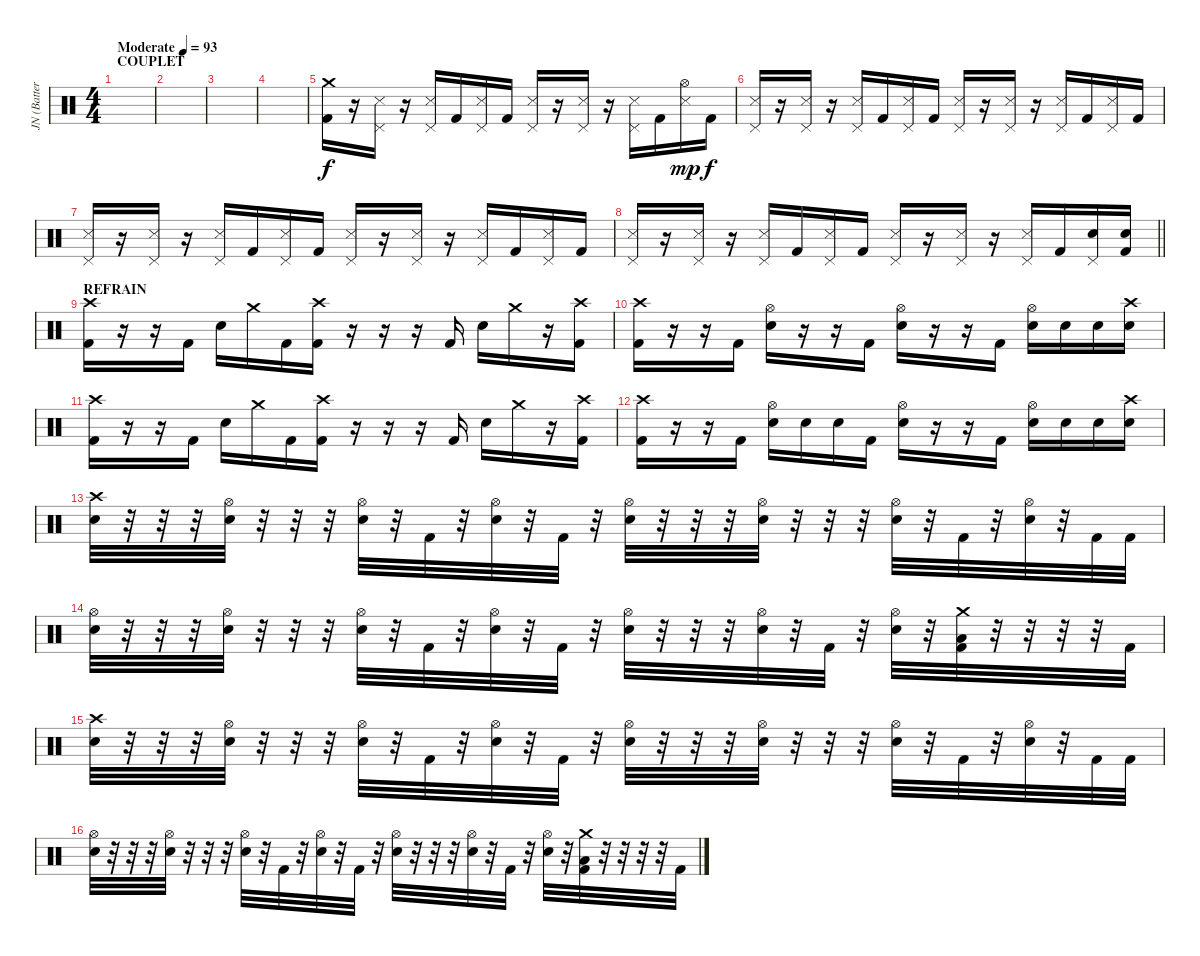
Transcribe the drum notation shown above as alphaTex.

\track ("JN (Batterie)" "JN (Batter") {instrument percussion}
\staff {score}
\articulation defaults
\ts (4 4)
\section ("" "COUPLET")
\tempo (93 "Moderate")
\clef neutral
\ks c
|
|
|
|
("Crash medium (hit)" "Kick (hit) 2").16 r.16 ("Pedal Hi-Hat (hit)" "Snare (side stick) 3").16 r.16 ("Pedal Hi-Hat (hit)" "Snare (side stick) 3").16 "Kick (hit) 2".16 ("Pedal Hi-Hat (hit)" "Snare (side stick) 3").16 "Kick (hit) 2".16 ("Pedal Hi-Hat (hit)" "Snare (side stick) 3").16 r.16 ("Pedal Hi-Hat (hit)" "Snare (side stick) 3").16 r.16 ("Pedal Hi-Hat (hit)" "Snare (side stick) 3").16 "Kick (hit) 2".16 ("Hi-Hat (open)" "Snare (side stick) 3").16{dy mp} "Kick (hit) 2".16{dy f} |
("Pedal Hi-Hat (hit)" "Snare (side stick) 3").16 r.16 ("Pedal Hi-Hat (hit)" "Snare (side stick) 3").16 r.16 ("Pedal Hi-Hat (hit)" "Snare (side stick) 3").16 "Kick (hit) 2".16 ("Pedal Hi-Hat (hit)" "Snare (side stick) 3").16 "Kick (hit) 2".16 ("Pedal Hi-Hat (hit)" "Snare (side stick) 3").16 r.16 ("Pedal Hi-Hat (hit)" "Snare (side stick) 3").16 r.16 ("Pedal Hi-Hat (hit)" "Snare (side stick) 3").16 "Kick (hit) 2".16 ("Pedal Hi-Hat (hit)" "Snare (side stick) 3").16 "Kick (hit) 2".16 |
("Pedal Hi-Hat (hit)" "Snare (side stick) 3").16 r.16 ("Pedal Hi-Hat (hit)" "Snare (side stick) 3").16 r.16 ("Pedal Hi-Hat (hit)" "Snare (side stick) 3").16 "Kick (hit) 2".16 ("Pedal Hi-Hat (hit)" "Snare (side stick) 3").16 "Kick (hit) 2".16 ("Pedal Hi-Hat (hit)" "Snare (side stick) 3").16 r.16 ("Pedal Hi-Hat (hit)" "Snare (side stick) 3").16 r.16 ("Pedal Hi-Hat (hit)" "Snare (side stick) 3").16 "Kick (hit) 2".16 ("Pedal Hi-Hat (hit)" "Snare (side stick) 3").16 "Kick (hit) 2".16 |
\barLineRight lightlight
("Pedal Hi-Hat (hit)" "Snare (side stick) 3").16 r.16 ("Pedal Hi-Hat (hit)" "Snare (side stick) 3").16 r.16 ("Pedal Hi-Hat (hit)" "Snare (side stick) 3").16 "Kick (hit) 2".16 ("Pedal Hi-Hat (hit)" "Snare (side stick) 3").16 "Kick (hit) 2".16 ("Pedal Hi-Hat (hit)" "Snare (side stick) 3").16 r.16 ("Pedal Hi-Hat (hit)" "Snare (side stick) 3").16 r.16 ("Pedal Hi-Hat (hit)" "Snare (side stick) 3").16 "Kick (hit) 2".16 ("Pedal Hi-Hat (hit)" "Electric Snare (hit)").16 ("Electric Snare (hit)" "Kick (hit) 2").16 |
\section ("" "REFRAIN")
("Crash high (hit)" "Kick (hit) 2").16 r.16 r.16 "Kick (hit) 2".16 "Electric Snare (hit)".16 "Crash medium (hit)".16 "Kick (hit) 2".16 ("Crash high (hit)" "Kick (hit) 2").16 r.16 r.16 r.16 "Kick (hit) 2".16 "Electric Snare (hit)".16 "Crash medium (hit)".16 r.16 ("Crash high (hit)" "Kick (hit) 2").16 |
("Crash high (hit)" "Kick (hit) 2").16 r.16 r.16 "Kick (hit) 2".16 ("Hi-Hat (open)" "Electric Snare (hit)").16 r.16 r.16 "Kick (hit) 2".16 ("Hi-Hat (open)" "Electric Snare (hit)").16 r.16 r.16 "Kick (hit) 2".16 ("Hi-Hat (open)" "Electric Snare (hit)").16 "Electric Snare (hit)".16 "Electric Snare (hit)".16 ("Crash high (hit)" "Electric Snare (hit)").16 |
("Crash high (hit)" "Kick (hit) 2").16 r.16 r.16 "Kick (hit) 2".16 "Electric Snare (hit)".16 "Crash medium (hit)".16 "Kick (hit) 2".16 ("Crash high (hit)" "Kick (hit) 2").16 r.16 r.16 r.16 "Kick (hit) 2".16 "Electric Snare (hit)".16 "Crash medium (hit)".16 r.16 ("Crash high (hit)" "Kick (hit) 2").16 |
("Crash high (hit)" "Kick (hit) 2").16 r.16 r.16 "Kick (hit) 2".16 ("Hi-Hat (open)" "Electric Snare (hit)").16 "Electric Snare (hit)".16 "Electric Snare (hit)".16 "Kick (hit) 2".16 ("Hi-Hat (open)" "Electric Snare (hit)").16 r.16 r.16 "Kick (hit) 2".16 ("Hi-Hat (open)" "Electric Snare (hit)").16 "Electric Snare (hit)".16 "Electric Snare (hit)".16 ("Crash high (hit)" "Electric Snare (hit)").16 |
("Crash high (hit)" "Electric Snare (hit)").32 r.32 r.32 r.32 ("Hi-Hat (open)" "Electric Snare (hit)").32 r.32 r.32 r.32 ("Hi-Hat (open)" "Electric Snare (hit)").32 r.32 "Kick (hit) 2".32 r.32 ("Hi-Hat (open)" "Electric Snare (hit)").32 r.32 "Kick (hit) 2".32 r.32 ("Hi-Hat (open)" "Electric Snare (hit)").32 r.32 r.32 r.32 ("Hi-Hat (open)" "Electric Snare (hit)").32 r.32 r.32 r.32 ("Hi-Hat (open)" "Electric Snare (hit)").32 r.32 "Kick (hit) 2".32 r.32 ("Hi-Hat (open)" "Electric Snare (hit)").32 r.32 "Kick (hit) 2".32 "Kick (hit) 2".32 |
("Hi-Hat (open)" "Electric Snare (hit)").32 r.32 r.32 r.32 ("Hi-Hat (open)" "Electric Snare (hit)").32 r.32 r.32 r.32 ("Hi-Hat (open)" "Electric Snare (hit)").32 r.32 "Kick (hit) 2".32 r.32 ("Hi-Hat (open)" "Electric Snare (hit)").32 r.32 "Kick (hit) 2".32 r.32 ("Hi-Hat (open)" "Electric Snare (hit)").32 r.32 r.32 r.32 ("Hi-Hat (open)" "Electric Snare (hit)").32 r.32 "Kick (hit) 2".32 r.32 ("Hi-Hat (open)" "Electric Snare (hit)").32 r.32 ("Crash medium (hit)" "Low Tom (hit)" "Kick (hit) 2").32 r.32 r.32 r.32 r.32 "Kick (hit) 2".32 |
("Crash high (hit)" "Electric Snare (hit)").32 r.32 r.32 r.32 ("Hi-Hat (open)" "Electric Snare (hit)").32 r.32 r.32 r.32 ("Hi-Hat (open)" "Electric Snare (hit)").32 r.32 "Kick (hit) 2".32 r.32 ("Hi-Hat (open)" "Electric Snare (hit)").32 r.32 "Kick (hit) 2".32 r.32 ("Hi-Hat (open)" "Electric Snare (hit)").32 r.32 r.32 r.32 ("Hi-Hat (open)" "Electric Snare (hit)").32 r.32 r.32 r.32 ("Hi-Hat (open)" "Electric Snare (hit)").32 r.32 "Kick (hit) 2".32 r.32 ("Hi-Hat (open)" "Electric Snare (hit)").32 r.32 "Kick (hit) 2".32 "Kick (hit) 2".32 |
("Hi-Hat (open)" "Electric Snare (hit)").32 r.32 r.32 r.32 ("Hi-Hat (open)" "Electric Snare (hit)").32 r.32 r.32 r.32 ("Hi-Hat (open)" "Electric Snare (hit)").32 r.32 "Kick (hit) 2".32 r.32 ("Hi-Hat (open)" "Electric Snare (hit)").32 r.32 "Kick (hit) 2".32 r.32 ("Hi-Hat (open)" "Electric Snare (hit)").32 r.32 r.32 r.32 ("Hi-Hat (open)" "Electric Snare (hit)").32 r.32 "Kick (hit) 2".32 r.32 ("Hi-Hat (open)" "Electric Snare (hit)").32 r.32 ("Crash medium (hit)" "Low Tom (hit)" "Kick (hit) 2").32 r.32 r.32 r.32 r.32 "Kick (hit) 2".32
